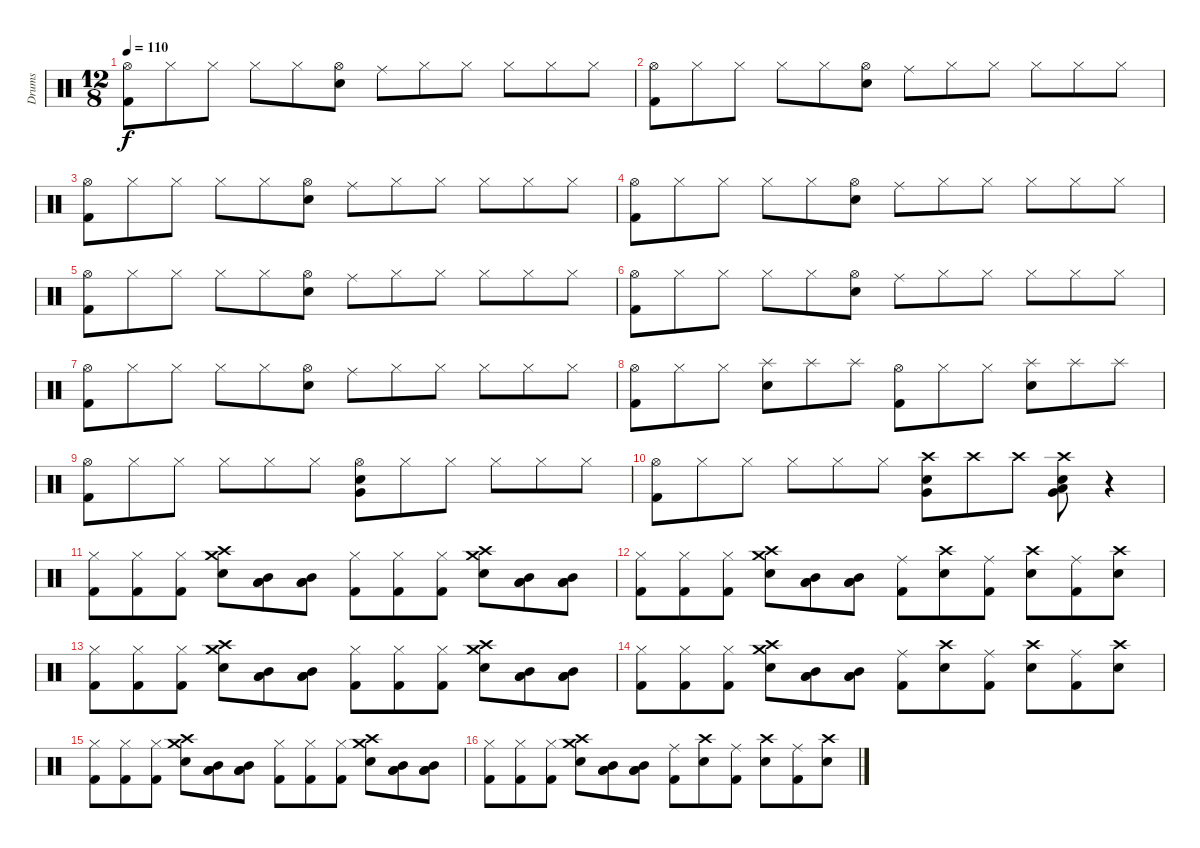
\track ("Drums" "Drums") {instrument percussion}
\staff {score}
\articulation defaults
\ts (12 8)
\tempo 110
\clef neutral
\ks c
("Hi-Hat (open)" "Kick (hit) 2").8{dy f} "Hi-Hat (closed)".8 "Hi-Hat (closed)".8 "Hi-Hat (closed)".8 "Hi-Hat (closed)".8 ("Snare (hit) 2" "Hi-Hat (open)").8 "Ride (middle)".8 "Hi-Hat (closed)".8 "Hi-Hat (closed)".8 "Hi-Hat (closed)".8 "Hi-Hat (closed)".8 "Hi-Hat (closed)".8 |
("Hi-Hat (open)" "Kick (hit) 2").8 "Hi-Hat (closed)".8 "Hi-Hat (closed)".8 "Hi-Hat (closed)".8 "Hi-Hat (closed)".8 ("Snare (hit) 2" "Hi-Hat (open)").8 "Ride (middle)".8 "Hi-Hat (closed)".8 "Hi-Hat (closed)".8 "Hi-Hat (closed)".8 "Hi-Hat (closed)".8 "Hi-Hat (closed)".8 |
("Hi-Hat (open)" "Kick (hit) 2").8 "Hi-Hat (closed)".8 "Hi-Hat (closed)".8 "Hi-Hat (closed)".8 "Hi-Hat (closed)".8 ("Snare (hit) 2" "Hi-Hat (open)").8 "Ride (middle)".8 "Hi-Hat (closed)".8 "Hi-Hat (closed)".8 "Hi-Hat (closed)".8 "Hi-Hat (closed)".8 "Hi-Hat (closed)".8 |
("Hi-Hat (open)" "Kick (hit) 2").8 "Hi-Hat (closed)".8 "Hi-Hat (closed)".8 "Hi-Hat (closed)".8 "Hi-Hat (closed)".8 ("Snare (hit) 2" "Hi-Hat (open)").8 "Ride (middle)".8 "Hi-Hat (closed)".8 "Hi-Hat (closed)".8 "Hi-Hat (closed)".8 "Hi-Hat (closed)".8 "Hi-Hat (closed)".8 |
("Hi-Hat (open)" "Kick (hit) 2").8 "Hi-Hat (closed)".8 "Hi-Hat (closed)".8 "Hi-Hat (closed)".8 "Hi-Hat (closed)".8 ("Snare (hit) 2" "Hi-Hat (open)").8 "Ride (middle)".8 "Hi-Hat (closed)".8 "Hi-Hat (closed)".8 "Hi-Hat (closed)".8 "Hi-Hat (closed)".8 "Hi-Hat (closed)".8 |
("Hi-Hat (open)" "Kick (hit) 2").8 "Hi-Hat (closed)".8 "Hi-Hat (closed)".8 "Hi-Hat (closed)".8 "Hi-Hat (closed)".8 ("Snare (hit) 2" "Hi-Hat (open)").8 "Ride (middle)".8 "Hi-Hat (closed)".8 "Hi-Hat (closed)".8 "Hi-Hat (closed)".8 "Hi-Hat (closed)".8 "Hi-Hat (closed)".8 |
("Hi-Hat (open)" "Kick (hit) 2").8 "Hi-Hat (closed)".8 "Hi-Hat (closed)".8 "Hi-Hat (closed)".8 "Hi-Hat (closed)".8 ("Snare (hit) 2" "Hi-Hat (open)").8 "Ride (middle)".8 "Hi-Hat (closed)".8 "Hi-Hat (closed)".8 "Hi-Hat (closed)".8 "Hi-Hat (closed)".8 "Hi-Hat (closed)".8 |
("Hi-Hat (open)" "Kick (hit) 2").8 "Hi-Hat (closed)".8 "Hi-Hat (closed)".8 ("Snare (hit) 2" "Splash (hit)").8 "Splash (hit)".8 "Splash (hit)".8 ("Kick (hit) 2" "Hi-Hat (open)").8 "Hi-Hat (closed)".8 "Hi-Hat (closed)".8 ("Snare (hit) 2" "Splash (hit)").8 "Splash (hit)".8 "Splash (hit)".8 |
("Hi-Hat (open)" "Kick (hit) 2").8 "Hi-Hat (closed)".8 "Hi-Hat (closed)".8 "Hi-Hat (closed)".8 "Hi-Hat (closed)".8 "Hi-Hat (closed)".8 ("Very Low Tom (hit)" "Hi-Hat (open)" "Snare (hit) 2").8 "Hi-Hat (closed)".8 "Hi-Hat (closed)".8 "Hi-Hat (closed)".8 "Hi-Hat (closed)".8 "Hi-Hat (closed)".8 |
("Hi-Hat (open)" "Kick (hit) 2").8 "Hi-Hat (closed)".8 "Hi-Hat (closed)".8 "Hi-Hat (closed)".8 "Hi-Hat (closed)".8 "Hi-Hat (closed)".8 ("Crash high (hit)" "Very Low Tom (hit)" "Snare (hit) 2").8 "Crash high (hit)".8 "Crash high (hit)".8 ("Very Low Tom (hit)" "Crash high (hit)" "Low Floor Tom (hit)" "Snare (hit) 2").8 r.4 |
("Hi-Hat (closed)" "Kick (hit) 2").8 ("Hi-Hat (closed)" "Kick (hit) 2").8 ("Hi-Hat (closed)" "Kick (hit) 2").8 ("Snare (hit) 2" "Crash high (hit)" "Crash medium (hit)").8 ("Low Tom (hit)" "Low Floor Tom (hit)" "Mid Tom (hit)").8 ("Mid Tom (hit)" "Low Floor Tom (hit)" "Low Tom (hit)").8 ("Hi-Hat (closed)" "Kick (hit) 2").8 ("Hi-Hat (closed)" "Kick (hit) 2").8 ("Hi-Hat (closed)" "Kick (hit) 2").8 ("Crash medium (hit)" "Crash high (hit)" "Snare (hit) 2").8 ("Mid Tom (hit)" "Low Tom (hit)" "Low Floor Tom (hit)").8 ("Mid Tom (hit)" "Low Tom (hit)" "Low Floor Tom (hit)").8 |
("Hi-Hat (closed)" "Kick (hit) 2").8 ("Hi-Hat (closed)" "Kick (hit) 2").8 ("Hi-Hat (closed)" "Kick (hit) 2").8 ("Snare (hit) 2" "Crash high (hit)" "Crash medium (hit)").8 ("Low Floor Tom (hit)" "Mid Tom (hit)" "Low Tom (hit)").8 ("Mid Tom (hit)" "Low Tom (hit)" "Low Floor Tom (hit)").8 ("Ride (middle)" "Kick (hit) 2").8 ("Crash high (hit)" "Snare (hit) 2").8 ("Ride (middle)" "Kick (hit) 2").8 ("Crash high (hit)" "Snare (hit) 2").8 ("Ride (middle)" "Kick (hit) 2").8 ("Crash high (hit)" "Snare (hit) 2").8 |
("Hi-Hat (closed)" "Kick (hit) 2").8 ("Hi-Hat (closed)" "Kick (hit) 2").8 ("Hi-Hat (closed)" "Kick (hit) 2").8 ("Snare (hit) 2" "Crash high (hit)" "Crash medium (hit)").8 ("Low Tom (hit)" "Low Floor Tom (hit)" "Mid Tom (hit)").8 ("Mid Tom (hit)" "Low Floor Tom (hit)" "Low Tom (hit)").8 ("Hi-Hat (closed)" "Kick (hit) 2").8 ("Hi-Hat (closed)" "Kick (hit) 2").8 ("Hi-Hat (closed)" "Kick (hit) 2").8 ("Crash medium (hit)" "Crash high (hit)" "Snare (hit) 2").8 ("Mid Tom (hit)" "Low Tom (hit)" "Low Floor Tom (hit)").8 ("Mid Tom (hit)" "Low Tom (hit)" "Low Floor Tom (hit)").8 |
("Hi-Hat (closed)" "Kick (hit) 2").8 ("Hi-Hat (closed)" "Kick (hit) 2").8 ("Hi-Hat (closed)" "Kick (hit) 2").8 ("Snare (hit) 2" "Crash high (hit)" "Crash medium (hit)").8 ("Low Floor Tom (hit)" "Mid Tom (hit)" "Low Tom (hit)").8 ("Mid Tom (hit)" "Low Tom (hit)" "Low Floor Tom (hit)").8 ("Ride (middle)" "Kick (hit) 2").8 ("Crash high (hit)" "Snare (hit) 2").8 ("Ride (middle)" "Kick (hit) 2").8 ("Crash high (hit)" "Snare (hit) 2").8 ("Ride (middle)" "Kick (hit) 2").8 ("Crash high (hit)" "Snare (hit) 2").8 |
("Hi-Hat (closed)" "Kick (hit) 2").8 ("Hi-Hat (closed)" "Kick (hit) 2").8 ("Hi-Hat (closed)" "Kick (hit) 2").8 ("Snare (hit) 2" "Crash high (hit)" "Crash medium (hit)").8 ("Low Tom (hit)" "Low Floor Tom (hit)" "Mid Tom (hit)").8 ("Mid Tom (hit)" "Low Floor Tom (hit)" "Low Tom (hit)").8 ("Hi-Hat (closed)" "Kick (hit) 2").8 ("Hi-Hat (closed)" "Kick (hit) 2").8 ("Hi-Hat (closed)" "Kick (hit) 2").8 ("Crash medium (hit)" "Crash high (hit)" "Snare (hit) 2").8 ("Mid Tom (hit)" "Low Tom (hit)" "Low Floor Tom (hit)").8 ("Mid Tom (hit)" "Low Tom (hit)" "Low Floor Tom (hit)").8 |
("Hi-Hat (closed)" "Kick (hit) 2").8 ("Hi-Hat (closed)" "Kick (hit) 2").8 ("Hi-Hat (closed)" "Kick (hit) 2").8 ("Snare (hit) 2" "Crash high (hit)" "Crash medium (hit)").8 ("Low Floor Tom (hit)" "Mid Tom (hit)" "Low Tom (hit)").8 ("Mid Tom (hit)" "Low Tom (hit)" "Low Floor Tom (hit)").8 ("Ride (middle)" "Kick (hit) 2").8 ("Crash high (hit)" "Snare (hit) 2").8 ("Ride (middle)" "Kick (hit) 2").8 ("Crash high (hit)" "Snare (hit) 2").8 ("Ride (middle)" "Kick (hit) 2").8 ("Crash high (hit)" "Snare (hit) 2").8
